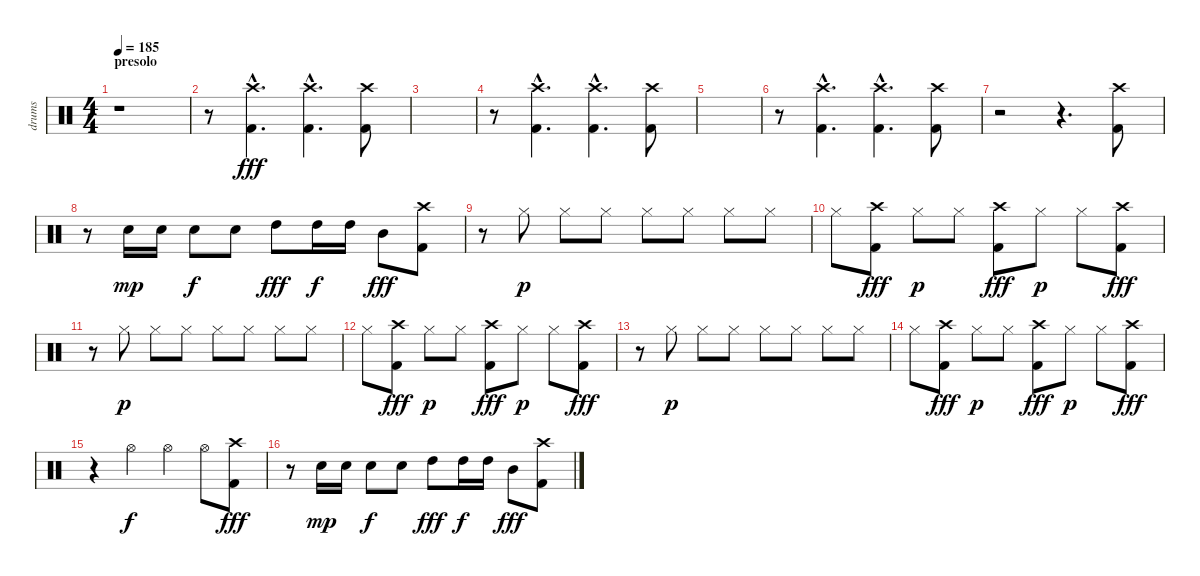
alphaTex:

\track ("drums" "drums") {instrument percussion}
\staff {score}
\articulation defaults
\ts (4 4)
\section ("" "presolo")
\tempo 185
\clef neutral
\ks c
r.1{dy fff} |
r.8 ("Crash high (hit)"{hac} "Kick (hit) 2"{hac}).4{d} ("Crash high (hit)"{hac} "Kick (hit) 2"{hac}).4{d} ("Crash high (hit)" "Kick (hit) 2").8 |
|
r.8 ("Crash high (hit)"{hac} "Kick (hit) 2"{hac}).4{d} ("Crash high (hit)"{hac} "Kick (hit) 2"{hac}).4{d} ("Crash high (hit)" "Kick (hit) 2").8 |
|
r.8 ("Crash high (hit)"{hac} "Kick (hit) 2"{hac}).4{d} ("Crash high (hit)"{hac} "Kick (hit) 2"{hac}).4{d} ("Crash high (hit)" "Kick (hit) 2").8 |
r.2 r.4{d} ("Crash high (hit)" "Kick (hit) 2").8 |
r.8 "Snare (hit) 2".16{dy mp} "Snare (hit) 2".16 "Snare (hit) 2".8{dy f} "Snare (hit) 2".8 "High Tom (hit)".8{dy fff} "High Tom (hit)".16{dy f} "High Tom (hit)".16 "Mid Tom (hit)".8{dy fff} ("Crash high (hit)" "Kick (hit) 2").8 |
r.8 "Hi-Hat (closed)".8{dy p} "Hi-Hat (closed)".8 "Hi-Hat (closed)".8 "Hi-Hat (closed)".8 "Hi-Hat (closed)".8 "Hi-Hat (closed)".8 "Hi-Hat (closed)".8 |
"Hi-Hat (closed)".8 ("Crash high (hit)" "Kick (hit) 2").8{dy fff} "Hi-Hat (closed)".8{dy p} "Hi-Hat (closed)".8 ("Crash high (hit)" "Kick (hit) 2").8{dy fff} "Hi-Hat (closed)".8{dy p} "Hi-Hat (closed)".8 ("Crash high (hit)" "Kick (hit) 2").8{dy fff} |
r.8 "Hi-Hat (closed)".8{dy p} "Hi-Hat (closed)".8 "Hi-Hat (closed)".8 "Hi-Hat (closed)".8 "Hi-Hat (closed)".8 "Hi-Hat (closed)".8 "Hi-Hat (closed)".8 |
"Hi-Hat (closed)".8 ("Crash high (hit)" "Kick (hit) 2").8{dy fff} "Hi-Hat (closed)".8{dy p} "Hi-Hat (closed)".8 ("Crash high (hit)" "Kick (hit) 2").8{dy fff} "Hi-Hat (closed)".8{dy p} "Hi-Hat (closed)".8 ("Crash high (hit)" "Kick (hit) 2").8{dy fff} |
r.8 "Hi-Hat (closed)".8{dy p} "Hi-Hat (closed)".8 "Hi-Hat (closed)".8 "Hi-Hat (closed)".8 "Hi-Hat (closed)".8 "Hi-Hat (closed)".8 "Hi-Hat (closed)".8 |
"Hi-Hat (closed)".8 ("Crash high (hit)" "Kick (hit) 2").8{dy fff} "Hi-Hat (closed)".8{dy p} "Hi-Hat (closed)".8 ("Crash high (hit)" "Kick (hit) 2").8{dy fff} "Hi-Hat (closed)".8{dy p} "Hi-Hat (closed)".8 ("Crash high (hit)" "Kick (hit) 2").8{dy fff} |
r.4 "Hi-Hat (open)".4{dy f} "Hi-Hat (open)".4 "Hi-Hat (open)".8 ("Crash high (hit)" "Kick (hit) 2").8{dy fff} |
r.8 "Snare (hit) 2".16{dy mp} "Snare (hit) 2".16 "Snare (hit) 2".8{dy f} "Snare (hit) 2".8 "High Tom (hit)".8{dy fff} "High Tom (hit)".16{dy f} "High Tom (hit)".16 "Mid Tom (hit)".8{dy fff} ("Crash high (hit)" "Kick (hit) 2").8
